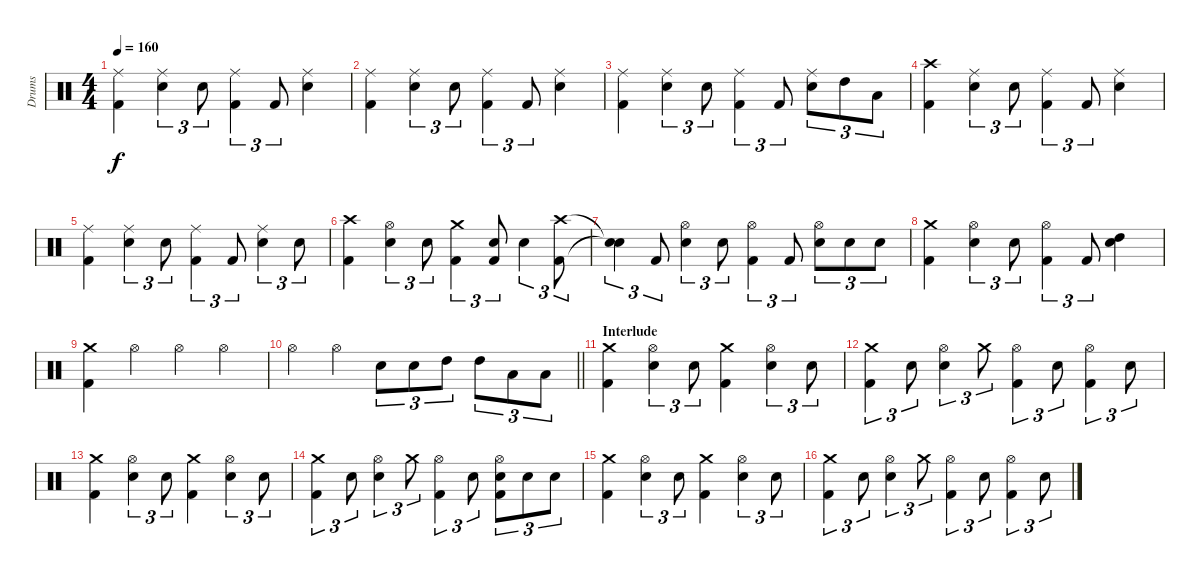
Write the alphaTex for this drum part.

\track ("Drums" "Drums") {instrument percussion}
\staff {score}
\articulation defaults
\ts (4 4)
\tempo 160
\clef neutral
\ks c
("Ride (middle)" "Kick (hit) 2").4{dy f} ("Ride (middle)" "Snare (hit) 2").4{tu (3 2)} "Snare (hit) 2".8{tu (3 2)} ("Ride (middle)" "Kick (hit) 2").4{tu (3 2)} "Kick (hit) 2".8{tu (3 2)} ("Ride (middle)" "Snare (hit) 2").4 |
("Ride (middle)" "Kick (hit) 2").4 ("Ride (middle)" "Snare (hit) 2").4{tu (3 2)} "Snare (hit) 2".8{tu (3 2)} ("Ride (middle)" "Kick (hit) 2").4{tu (3 2)} "Kick (hit) 2".8{tu (3 2)} ("Ride (middle)" "Snare (hit) 2").4 |
("Ride (middle)" "Kick (hit) 2").4 ("Ride (middle)" "Snare (hit) 2").4{tu (3 2)} "Snare (hit) 2".8{tu (3 2)} ("Ride (middle)" "Kick (hit) 2").4{tu (3 2)} "Kick (hit) 2".8{tu (3 2)} ("Ride (middle)" "Snare (hit) 2").8{tu (3 2)} "High Tom (hit)".8{tu (3 2)} "Low Tom (hit)".8{tu (3 2)} |
("Crash high (hit)" "Kick (hit) 2").4 ("Ride (middle)" "Snare (hit) 2").4{tu (3 2)} "Snare (hit) 2".8{tu (3 2)} ("Ride (middle)" "Kick (hit) 2").4{tu (3 2)} "Kick (hit) 2".8{tu (3 2)} ("Ride (middle)" "Snare (hit) 2").4 |
("Ride (middle)" "Kick (hit) 2").4 ("Ride (middle)" "Snare (hit) 2").4{tu (3 2)} "Snare (hit) 2".8{tu (3 2)} ("Ride (middle)" "Kick (hit) 2").4{tu (3 2)} "Kick (hit) 2".8{tu (3 2)} ("Ride (middle)" "Snare (hit) 2").4{tu (3 2)} "Snare (hit) 2".8{tu (3 2)} |
("Crash high (hit)" "Kick (hit) 2").4 ("Hi-Hat (open)" "Snare (hit) 2").4{tu (3 2)} "Snare (hit) 2".8{tu (3 2)} ("Crash medium (hit)" "Kick (hit) 2").4{tu (3 2)} ("Snare (hit) 2" "Kick (hit) 2").8{tu (3 2)} "Snare (hit) 2".4{tu (3 2)} ("Crash high (hit)" "Kick (hit) 2").8{tu (3 2)} |
("Snare (hit)"{t} "Snare (hit)"{t}).4{tu (3 2)} "Kick (hit) 2".8{tu (3 2)} ("Hi-Hat (open)" "Snare (hit) 2").4{tu (3 2)} "Snare (hit) 2".8{tu (3 2)} ("Hi-Hat (open)" "Kick (hit) 2").4{tu (3 2)} "Kick (hit) 2".8{tu (3 2)} ("Hi-Hat (open)" "Snare (hit) 2").8{tu (3 2)} "Snare (hit) 2".8{tu (3 2)} "Snare (hit) 2".8{tu (3 2)} |
("Crash medium (hit)" "Kick (hit) 2").4 ("Hi-Hat (open)" "Snare (hit) 2").4{tu (3 2)} "Snare (hit) 2".8{tu (3 2)} ("Hi-Hat (open)" "Kick (hit) 2").4{tu (3 2)} "Kick (hit) 2".8{tu (3 2)} ("High Tom (hit)" "Snare (hit) 2").4 |
("Crash medium (hit)" "Kick (hit) 2").4 "Hi-Hat (open)".4 "Hi-Hat (open)".4 "Hi-Hat (open)".4 |
\barLineRight lightlight "Hi-Hat (open)".4 "Hi-Hat (open)".4 "Snare (hit) 2".8{tu (3 2)} "Snare (hit) 2".8{tu (3 2)} "High Tom (hit)".8{tu (3 2)} "High Tom (hit)".8{tu (3 2)} "Low Tom (hit)".8{tu (3 2)} "Low Tom (hit)".8{tu (3 2)}
|
\section ("" "Interlude")
("Crash medium (hit)" "Kick (hit) 2").4 ("Hi-Hat (open)" "Snare (hit) 2").4{tu (3 2)} "Snare (hit) 2".8{tu (3 2)} ("Crash medium (hit)" "Kick (hit) 2").4 ("Hi-Hat (open)" "Snare (hit) 2").4{tu (3 2)} "Snare (hit) 2".8{tu (3 2)} |
("Crash medium (hit)" "Kick (hit) 2").4{tu (3 2)} "Snare (hit) 2".8{tu (3 2)} ("Hi-Hat (open)" "Snare (hit) 2").4{tu (3 2)} "Crash medium (hit)".8{tu (3 2)} ("Hi-Hat (open)" "Kick (hit) 2").4{tu (3 2)} "Snare (hit) 2".8{tu (3 2)} ("Hi-Hat (open)" "Kick (hit) 2").4{tu (3 2)} "Snare (hit) 2".8{tu (3 2)} |
("Crash medium (hit)" "Kick (hit) 2").4 ("Hi-Hat (open)" "Snare (hit) 2").4{tu (3 2)} "Snare (hit) 2".8{tu (3 2)} ("Crash medium (hit)" "Kick (hit) 2").4 ("Hi-Hat (open)" "Snare (hit) 2").4{tu (3 2)} "Snare (hit) 2".8{tu (3 2)} |
("Crash medium (hit)" "Kick (hit) 2").4{tu (3 2)} "Snare (hit) 2".8{tu (3 2)} ("Hi-Hat (open)" "Snare (hit) 2").4{tu (3 2)} "Crash medium (hit)".8{tu (3 2)} ("Hi-Hat (open)" "Kick (hit) 2").4{tu (3 2)} "Snare (hit) 2".8{tu (3 2)} ("Hi-Hat (open)" "Snare (hit) 2" "Kick (hit) 2").8{tu (3 2)} "Snare (hit) 2".8{tu (3 2)} "Snare (hit) 2".8{tu (3 2)} |
("Crash medium (hit)" "Kick (hit) 2").4 ("Hi-Hat (open)" "Snare (hit) 2").4{tu (3 2)} "Snare (hit) 2".8{tu (3 2)} ("Crash medium (hit)" "Kick (hit) 2").4 ("Hi-Hat (open)" "Snare (hit) 2").4{tu (3 2)} "Snare (hit) 2".8{tu (3 2)} |
("Crash medium (hit)" "Kick (hit) 2").4{tu (3 2)} "Snare (hit) 2".8{tu (3 2)} ("Hi-Hat (open)" "Snare (hit) 2").4{tu (3 2)} "Crash medium (hit)".8{tu (3 2)} ("Hi-Hat (open)" "Kick (hit) 2").4{tu (3 2)} "Snare (hit) 2".8{tu (3 2)} ("Hi-Hat (open)" "Kick (hit) 2").4{tu (3 2)} "Snare (hit) 2".8{tu (3 2)}
